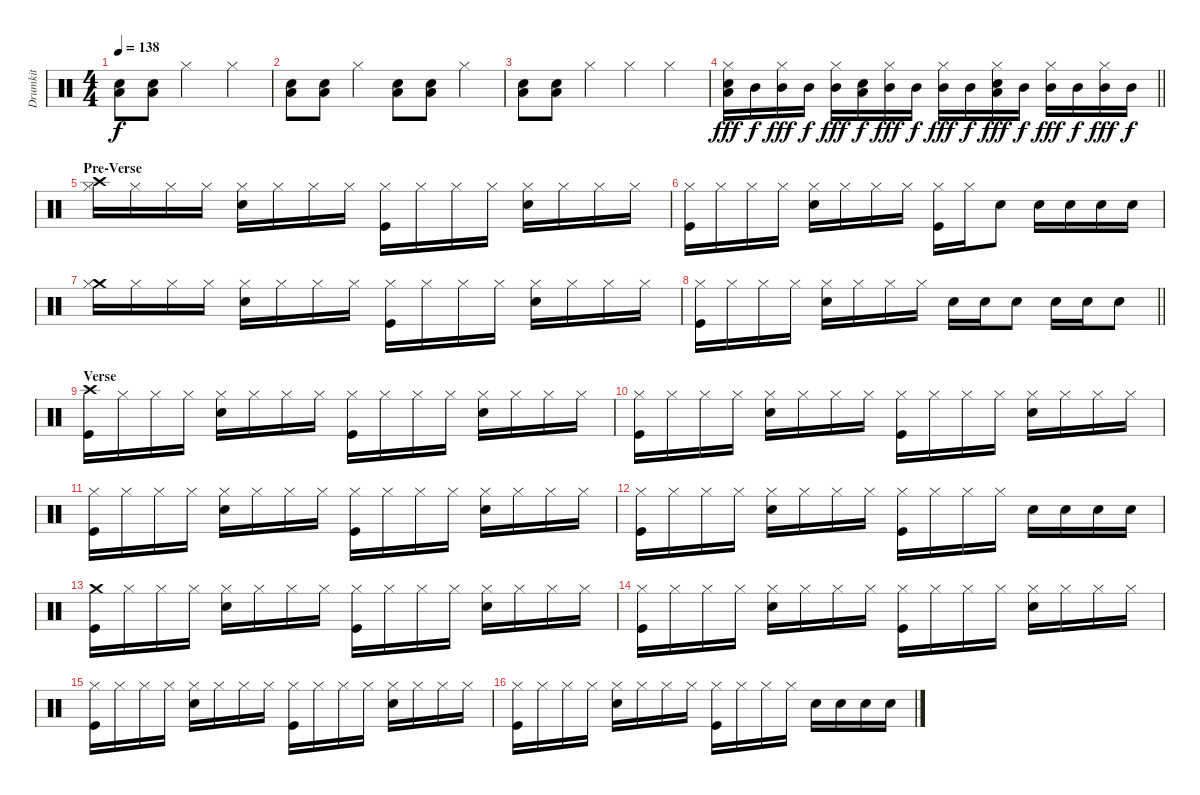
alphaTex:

\track ("Drumkit" "Drumkit") {instrument percussion}
\staff {score}
\articulation defaults
\ts (4 4)
\tempo 138
\clef neutral
\ks c
("Low Floor Tom (hit)" "Snare (hit) 2").8{dy f} ("Low Floor Tom (hit)" "Snare (hit) 2").8 "Hi-Hat (closed)".2 "Hi-Hat (closed)".4 |
("Low Floor Tom (hit)" "Snare (hit) 2").8 ("Low Floor Tom (hit)" "Snare (hit) 2").8 "Hi-Hat (closed)".4 ("Low Floor Tom (hit)" "Snare (hit) 2").8 ("Low Floor Tom (hit)" "Snare (hit) 2").8 "Hi-Hat (closed)".4 |
("Low Floor Tom (hit)" "Snare (hit) 2").8 ("Low Floor Tom (hit)" "Snare (hit) 2").8 "Hi-Hat (closed)".4 "Hi-Hat (closed)".4 "Hi-Hat (closed)".4 |
\barLineRight lightlight
("Hi-Hat (closed)" "Snare (hit) 2" "Low Floor Tom (hit)").16{dy fff} "Mid Tom (hit)".16{dy f} ("Hi-Hat (closed)" "Mid Tom (hit)").16{dy fff} "Mid Tom (hit)".16{dy f} ("Hi-Hat (closed)" "Mid Tom (hit)").16{dy fff} ("Snare (hit) 2" "Low Floor Tom (hit)").16{dy f} ("Hi-Hat (closed)" "Mid Tom (hit)").16{dy fff} "Mid Tom (hit)".16{dy f} ("Hi-Hat (closed)" "Mid Tom (hit)").16{dy fff} "Mid Tom (hit)".16{dy f} ("Hi-Hat (closed)" "Snare (hit) 2" "Low Floor Tom (hit)").16{dy fff} "Mid Tom (hit)".16{dy f} ("Hi-Hat (closed)" "Mid Tom (hit)").16{dy fff} "Mid Tom (hit)".16{dy f} ("Hi-Hat (closed)" "Mid Tom (hit)").16{dy fff} "Mid Tom (hit)".16{dy f} |
\section ("" "Pre-Verse")
("Crash high (hit)" "Hi-Hat (closed)").16 "Hi-Hat (closed)".16 "Hi-Hat (closed)".16 "Hi-Hat (closed)".16 ("Snare (hit) 2" "Hi-Hat (closed)").16 "Hi-Hat (closed)".16 "Hi-Hat (closed)".16 "Hi-Hat (closed)".16 ("Kick (hit)" "Hi-Hat (closed)").16 "Hi-Hat (closed)".16 "Hi-Hat (closed)".16 "Hi-Hat (closed)".16 ("Snare (hit) 2" "Hi-Hat (closed)").16 "Hi-Hat (closed)".16 "Hi-Hat (closed)".16 "Hi-Hat (closed)".16 |
("Kick (hit)" "Hi-Hat (closed)").16 "Hi-Hat (closed)".16 "Hi-Hat (closed)".16 "Hi-Hat (closed)".16 ("Snare (hit) 2" "Hi-Hat (closed)").16 "Hi-Hat (closed)".16 "Hi-Hat (closed)".16 "Hi-Hat (closed)".16 ("Kick (hit)" "Hi-Hat (closed)").16 "Hi-Hat (closed)".16 "Snare (hit) 2".8 "Snare (hit) 2".16 "Snare (hit) 2".16 "Snare (hit) 2".16 "Snare (hit) 2".16 |
("Crash medium (hit)" "Hi-Hat (closed)").16 "Hi-Hat (closed)".16 "Hi-Hat (closed)".16 "Hi-Hat (closed)".16 ("Snare (hit) 2" "Hi-Hat (closed)").16 "Hi-Hat (closed)".16 "Hi-Hat (closed)".16 "Hi-Hat (closed)".16 ("Kick (hit)" "Hi-Hat (closed)").16 "Hi-Hat (closed)".16 "Hi-Hat (closed)".16 "Hi-Hat (closed)".16 ("Snare (hit) 2" "Hi-Hat (closed)").16 "Hi-Hat (closed)".16 "Hi-Hat (closed)".16 "Hi-Hat (closed)".16 |
\barLineRight lightlight
("Kick (hit)" "Hi-Hat (closed)").16 "Hi-Hat (closed)".16 "Hi-Hat (closed)".16 "Hi-Hat (closed)".16 ("Snare (hit) 2" "Hi-Hat (closed)").16 "Hi-Hat (closed)".16 "Hi-Hat (closed)".16 "Hi-Hat (closed)".16 "Snare (hit) 2".16 "Snare (hit) 2".16 "Snare (hit) 2".8 "Snare (hit) 2".16 "Snare (hit) 2".16 "Snare (hit) 2".8 |
\section ("" "Verse")
("Kick (hit)" "Crash high (hit)").16 "Hi-Hat (closed)".16 "Hi-Hat (closed)".16 "Hi-Hat (closed)".16 ("Snare (hit) 2" "Hi-Hat (closed)").16 "Hi-Hat (closed)".16 "Hi-Hat (closed)".16 "Hi-Hat (closed)".16 ("Kick (hit)" "Hi-Hat (closed)").16 "Hi-Hat (closed)".16 "Hi-Hat (closed)".16 "Hi-Hat (closed)".16 ("Snare (hit) 2" "Hi-Hat (closed)").16 "Hi-Hat (closed)".16 "Hi-Hat (closed)".16 "Hi-Hat (closed)".16 |
("Kick (hit)" "Hi-Hat (closed)").16 "Hi-Hat (closed)".16 "Hi-Hat (closed)".16 "Hi-Hat (closed)".16 ("Snare (hit) 2" "Hi-Hat (closed)").16 "Hi-Hat (closed)".16 "Hi-Hat (closed)".16 "Hi-Hat (closed)".16 ("Kick (hit)" "Hi-Hat (closed)").16 "Hi-Hat (closed)".16 "Hi-Hat (closed)".16 "Hi-Hat (closed)".16 ("Snare (hit) 2" "Hi-Hat (closed)").16 "Hi-Hat (closed)".16 "Hi-Hat (closed)".16 "Hi-Hat (closed)".16 |
("Kick (hit)" "Hi-Hat (closed)").16 "Hi-Hat (closed)".16 "Hi-Hat (closed)".16 "Hi-Hat (closed)".16 ("Snare (hit) 2" "Hi-Hat (closed)").16 "Hi-Hat (closed)".16 "Hi-Hat (closed)".16 "Hi-Hat (closed)".16 ("Kick (hit)" "Hi-Hat (closed)").16 "Hi-Hat (closed)".16 "Hi-Hat (closed)".16 "Hi-Hat (closed)".16 ("Snare (hit) 2" "Hi-Hat (closed)").16 "Hi-Hat (closed)".16 "Hi-Hat (closed)".16 "Hi-Hat (closed)".16 |
("Kick (hit)" "Hi-Hat (closed)").16 "Hi-Hat (closed)".16 "Hi-Hat (closed)".16 "Hi-Hat (closed)".16 ("Snare (hit) 2" "Hi-Hat (closed)").16 "Hi-Hat (closed)".16 "Hi-Hat (closed)".16 "Hi-Hat (closed)".16 ("Kick (hit)" "Hi-Hat (closed)").16 "Hi-Hat (closed)".16 "Hi-Hat (closed)".16 "Hi-Hat (closed)".16 "Snare (hit) 2".16 "Snare (hit) 2".16 "Snare (hit) 2".16 "Snare (hit) 2".16 |
("Kick (hit)" "Crash medium (hit)").16 "Hi-Hat (closed)".16 "Hi-Hat (closed)".16 "Hi-Hat (closed)".16 ("Snare (hit) 2" "Hi-Hat (closed)").16 "Hi-Hat (closed)".16 "Hi-Hat (closed)".16 "Hi-Hat (closed)".16 ("Kick (hit)" "Hi-Hat (closed)").16 "Hi-Hat (closed)".16 "Hi-Hat (closed)".16 "Hi-Hat (closed)".16 ("Snare (hit) 2" "Hi-Hat (closed)").16 "Hi-Hat (closed)".16 "Hi-Hat (closed)".16 "Hi-Hat (closed)".16 |
("Kick (hit)" "Hi-Hat (closed)").16 "Hi-Hat (closed)".16 "Hi-Hat (closed)".16 "Hi-Hat (closed)".16 ("Snare (hit) 2" "Hi-Hat (closed)").16 "Hi-Hat (closed)".16 "Hi-Hat (closed)".16 "Hi-Hat (closed)".16 ("Kick (hit)" "Hi-Hat (closed)").16 "Hi-Hat (closed)".16 "Hi-Hat (closed)".16 "Hi-Hat (closed)".16 ("Snare (hit) 2" "Hi-Hat (closed)").16 "Hi-Hat (closed)".16 "Hi-Hat (closed)".16 "Hi-Hat (closed)".16 |
("Kick (hit)" "Hi-Hat (closed)").16 "Hi-Hat (closed)".16 "Hi-Hat (closed)".16 "Hi-Hat (closed)".16 ("Snare (hit) 2" "Hi-Hat (closed)").16 "Hi-Hat (closed)".16 "Hi-Hat (closed)".16 "Hi-Hat (closed)".16 ("Kick (hit)" "Hi-Hat (closed)").16 "Hi-Hat (closed)".16 "Hi-Hat (closed)".16 "Hi-Hat (closed)".16 ("Snare (hit) 2" "Hi-Hat (closed)").16 "Hi-Hat (closed)".16 "Hi-Hat (closed)".16 "Hi-Hat (closed)".16 |
("Kick (hit)" "Hi-Hat (closed)").16 "Hi-Hat (closed)".16 "Hi-Hat (closed)".16 "Hi-Hat (closed)".16 ("Snare (hit) 2" "Hi-Hat (closed)").16 "Hi-Hat (closed)".16 "Hi-Hat (closed)".16 "Hi-Hat (closed)".16 ("Kick (hit)" "Hi-Hat (closed)").16 "Hi-Hat (closed)".16 "Hi-Hat (closed)".16 "Hi-Hat (closed)".16 "Snare (hit) 2".16 "Snare (hit) 2".16 "Snare (hit) 2".16 "Snare (hit) 2".16
